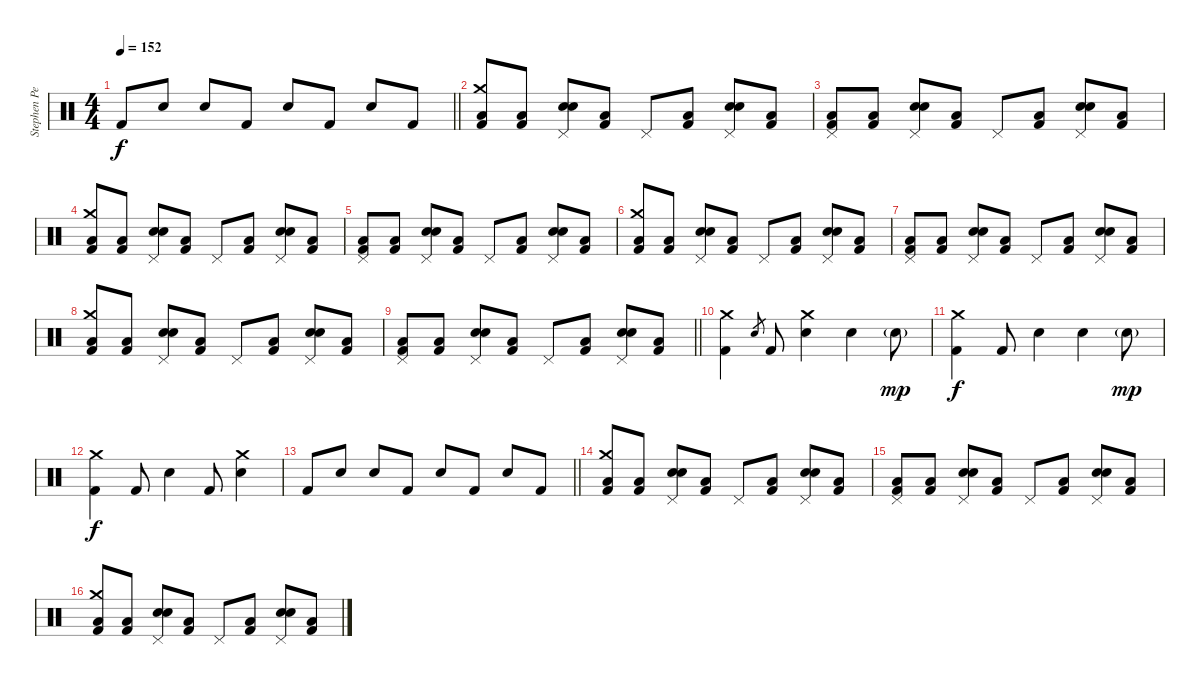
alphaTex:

\track ("Stephen Perkins (Drums)" "Stephen Pe") {instrument percussion}
\staff {score}
\articulation defaults
\ts (4 4)
\tempo 152
\clef neutral
\barLineRight lightlight
\ks c "Kick (hit) 2".8{dy f} "Electric Snare (hit)".8 "Electric Snare (hit)".8 "Kick (hit) 2".8 "Electric Snare (hit)".8 "Kick (hit) 2".8 "Electric Snare (hit)".8 "Kick (hit) 2".8
|
("Crash medium (hit)" "Low Floor Tom (hit)" "Kick (hit) 2").8 ("Low Floor Tom (hit)" "Kick (hit) 2").8 ("Pedal Hi-Hat (hit)" "Electric Snare (hit)" "Snare (hit) 2").8 ("Low Floor Tom (hit)" "Kick (hit) 2").8 "Pedal Hi-Hat (hit)".8 ("Low Floor Tom (hit)" "Kick (hit) 2").8 ("Pedal Hi-Hat (hit)" "Electric Snare (hit)" "Snare (hit) 2").8 ("Low Tom (hit)" "Kick (hit) 2").8 |
("Pedal Hi-Hat (hit)" "Low Floor Tom (hit)" "Kick (hit) 2").8 ("Low Floor Tom (hit)" "Kick (hit) 2").8 ("Pedal Hi-Hat (hit)" "Electric Snare (hit)" "Snare (hit) 2").8 ("Low Floor Tom (hit)" "Kick (hit) 2").8 "Pedal Hi-Hat (hit)".8 ("Low Floor Tom (hit)" "Kick (hit) 2").8 ("Pedal Hi-Hat (hit)" "Electric Snare (hit)" "Snare (hit) 2").8 ("Low Tom (hit)" "Kick (hit) 2").8 |
("Crash medium (hit)" "Low Floor Tom (hit)" "Kick (hit) 2").8 ("Low Floor Tom (hit)" "Kick (hit) 2").8 ("Pedal Hi-Hat (hit)" "Electric Snare (hit)" "Snare (hit) 2").8 ("Low Floor Tom (hit)" "Kick (hit) 2").8 "Pedal Hi-Hat (hit)".8 ("Low Floor Tom (hit)" "Kick (hit) 2").8 ("Pedal Hi-Hat (hit)" "Electric Snare (hit)" "Snare (hit) 2").8 ("Low Tom (hit)" "Kick (hit) 2").8 |
("Pedal Hi-Hat (hit)" "Low Floor Tom (hit)" "Kick (hit) 2").8 ("Low Floor Tom (hit)" "Kick (hit) 2").8 ("Pedal Hi-Hat (hit)" "Electric Snare (hit)" "Snare (hit) 2").8 ("Low Floor Tom (hit)" "Kick (hit) 2").8 "Pedal Hi-Hat (hit)".8 ("Low Floor Tom (hit)" "Kick (hit) 2").8 ("Pedal Hi-Hat (hit)" "Electric Snare (hit)" "Snare (hit) 2").8 ("Low Tom (hit)" "Kick (hit) 2").8 |
("Crash medium (hit)" "Low Floor Tom (hit)" "Kick (hit) 2").8 ("Low Floor Tom (hit)" "Kick (hit) 2").8 ("Pedal Hi-Hat (hit)" "Electric Snare (hit)" "Snare (hit) 2").8 ("Low Floor Tom (hit)" "Kick (hit) 2").8 "Pedal Hi-Hat (hit)".8 ("Low Floor Tom (hit)" "Kick (hit) 2").8 ("Pedal Hi-Hat (hit)" "Electric Snare (hit)" "Snare (hit) 2").8 ("Low Tom (hit)" "Kick (hit) 2").8 |
("Pedal Hi-Hat (hit)" "Low Floor Tom (hit)" "Kick (hit) 2").8 ("Low Floor Tom (hit)" "Kick (hit) 2").8 ("Pedal Hi-Hat (hit)" "Electric Snare (hit)" "Snare (hit) 2").8 ("Low Floor Tom (hit)" "Kick (hit) 2").8 "Pedal Hi-Hat (hit)".8 ("Low Floor Tom (hit)" "Kick (hit) 2").8 ("Pedal Hi-Hat (hit)" "Electric Snare (hit)" "Snare (hit) 2").8 ("Low Tom (hit)" "Kick (hit) 2").8 |
("Crash medium (hit)" "Low Floor Tom (hit)" "Kick (hit) 2").8 ("Low Floor Tom (hit)" "Kick (hit) 2").8 ("Pedal Hi-Hat (hit)" "Electric Snare (hit)" "Snare (hit) 2").8 ("Low Floor Tom (hit)" "Kick (hit) 2").8 "Pedal Hi-Hat (hit)".8 ("Low Floor Tom (hit)" "Kick (hit) 2").8 ("Pedal Hi-Hat (hit)" "Electric Snare (hit)" "Snare (hit) 2").8 ("Low Tom (hit)" "Kick (hit) 2").8 |
\barLineRight lightlight
("Pedal Hi-Hat (hit)" "Low Floor Tom (hit)" "Kick (hit) 2").8 ("Low Floor Tom (hit)" "Kick (hit) 2").8 ("Pedal Hi-Hat (hit)" "Electric Snare (hit)" "Snare (hit) 2").8 ("Low Floor Tom (hit)" "Kick (hit) 2").8 "Pedal Hi-Hat (hit)".8 ("Low Floor Tom (hit)" "Kick (hit) 2").8 ("Pedal Hi-Hat (hit)" "Electric Snare (hit)" "Snare (hit) 2").8 ("Low Tom (hit)" "Kick (hit) 2").8 |
("Crash medium (hit)" "Kick (hit) 2").4 "Electric Snare (hit)".8{gr} "Kick (hit) 2".8 ("Crash medium (hit)" "Electric Snare (hit)").4 "Electric Snare (hit)".4 "Electric Snare (hit)"{g}.8{dy mp} |
("Crash medium (hit)" "Kick (hit) 2").4{dy f} "Kick (hit) 2".8 "Electric Snare (hit)".4 "Electric Snare (hit)".4 "Electric Snare (hit)"{g}.8{dy mp} |
("Crash medium (hit)" "Kick (hit) 2").4{dy f} "Kick (hit) 2".8 "Electric Snare (hit)".4 "Kick (hit) 2".8 ("Crash medium (hit)" "Electric Snare (hit)").4 |
\barLineRight lightlight "Kick (hit) 2".8 "Electric Snare (hit)".8 "Electric Snare (hit)".8 "Kick (hit) 2".8 "Electric Snare (hit)".8 "Kick (hit) 2".8 "Electric Snare (hit)".8 "Kick (hit) 2".8
|
("Crash medium (hit)" "Low Floor Tom (hit)" "Kick (hit) 2").8 ("Low Floor Tom (hit)" "Kick (hit) 2").8 ("Pedal Hi-Hat (hit)" "Electric Snare (hit)" "Snare (hit) 2").8 ("Low Floor Tom (hit)" "Kick (hit) 2").8 "Pedal Hi-Hat (hit)".8 ("Low Floor Tom (hit)" "Kick (hit) 2").8 ("Pedal Hi-Hat (hit)" "Electric Snare (hit)" "Snare (hit) 2").8 ("Low Tom (hit)" "Kick (hit) 2").8 |
("Pedal Hi-Hat (hit)" "Low Floor Tom (hit)" "Kick (hit) 2").8 ("Low Floor Tom (hit)" "Kick (hit) 2").8 ("Pedal Hi-Hat (hit)" "Electric Snare (hit)" "Snare (hit) 2").8 ("Low Floor Tom (hit)" "Kick (hit) 2").8 "Pedal Hi-Hat (hit)".8 ("Low Floor Tom (hit)" "Kick (hit) 2").8 ("Pedal Hi-Hat (hit)" "Electric Snare (hit)" "Snare (hit) 2").8 ("Low Tom (hit)" "Kick (hit) 2").8 |
("Crash medium (hit)" "Low Floor Tom (hit)" "Kick (hit) 2").8 ("Low Floor Tom (hit)" "Kick (hit) 2").8 ("Pedal Hi-Hat (hit)" "Electric Snare (hit)" "Snare (hit) 2").8 ("Low Floor Tom (hit)" "Kick (hit) 2").8 "Pedal Hi-Hat (hit)".8 ("Low Floor Tom (hit)" "Kick (hit) 2").8 ("Pedal Hi-Hat (hit)" "Electric Snare (hit)" "Snare (hit) 2").8 ("Low Tom (hit)" "Kick (hit) 2").8
